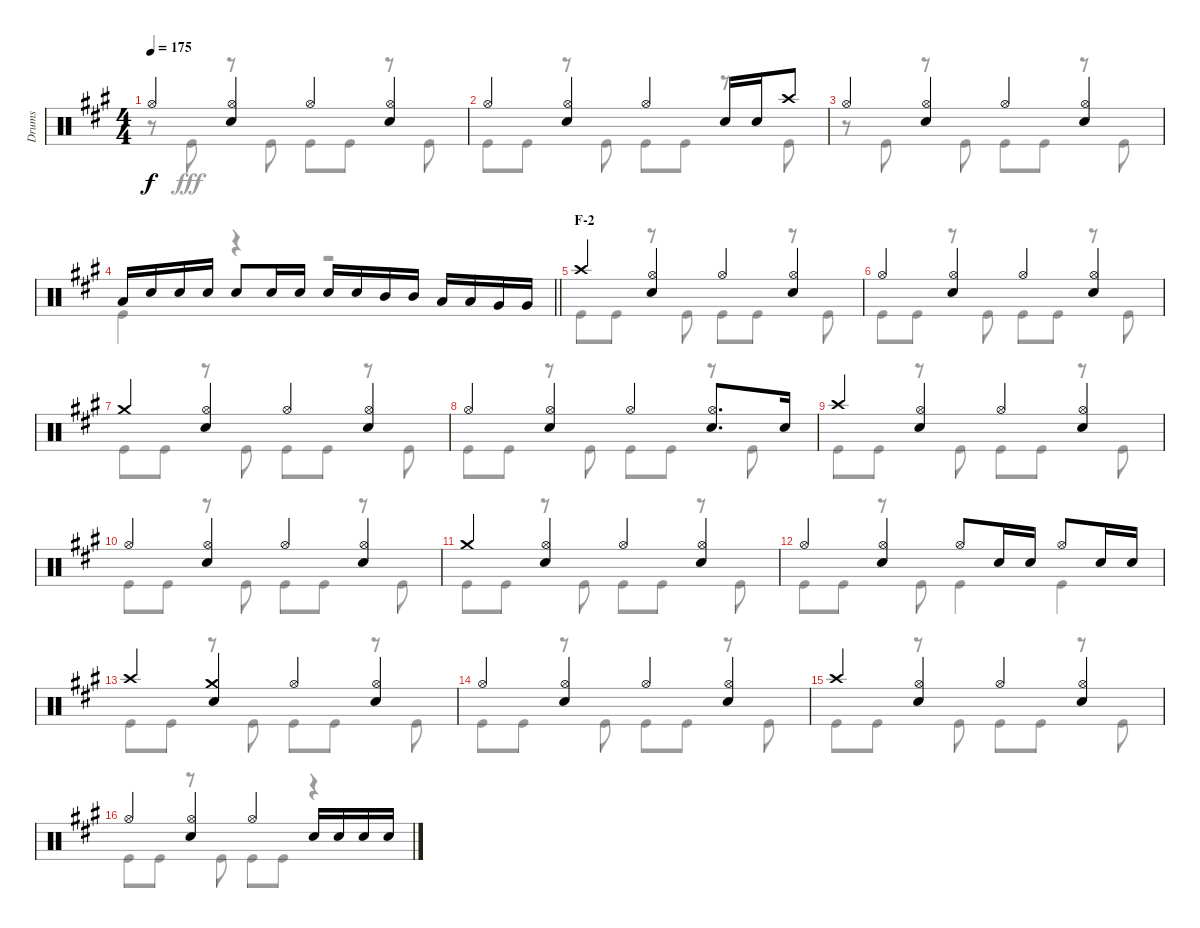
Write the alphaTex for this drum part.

\track ("Drums" "Drums") {instrument percussion}
\staff {score}
\articulation defaults
\voice
\ts (4 4)
\tempo 175
\clef neutral
\ks a "Hi-Hat (open)".4{dy f}
("Hi-Hat (open)" "Snare (hit) 2").4 "Hi-Hat (open)".4 ("Hi-Hat (open)" "Snare (hit) 2").4 |
"Hi-Hat (open)".4 ("Hi-Hat (open)" "Snare (hit) 2").4 "Hi-Hat (open)".4 "Snare (hit) 2".16 "Snare (hit) 2".16 "Crash high (hit)".8 |
"Hi-Hat (open)".4 ("Hi-Hat (open)" "Snare (hit) 2").4 "Hi-Hat (open)".4 ("Hi-Hat (open)" "Snare (hit) 2").4 |
\barLineRight lightlight "Low Tom (hit)".16 "Snare (hit) 2".16 "Snare (hit) 2".16 "Snare (hit) 2".16 "Snare (hit) 2".8 "Snare (hit) 2".16 "Snare (hit) 2".16 "Snare (hit) 2".16 "Snare (hit) 2".16 "Mid Tom (hit)".16 "Mid Tom (hit)".16 "Low Tom (hit)".16 "Low Tom (hit)".16 "Very Low Tom (hit)".16 "Very Low Tom (hit)".16
|
\section ("" "F-2")
"Crash high (hit)".4 ("Hi-Hat (open)" "Snare (hit) 2").4 "Hi-Hat (open)".4 ("Hi-Hat (open)" "Snare (hit) 2").4 |
"Hi-Hat (open)".4 ("Hi-Hat (open)" "Snare (hit) 2").4 "Hi-Hat (open)".4 ("Hi-Hat (open)" "Snare (hit) 2").4 |
"Crash medium (hit)".4 ("Hi-Hat (open)" "Snare (hit) 2").4 "Hi-Hat (open)".4 ("Hi-Hat (open)" "Snare (hit) 2").4 |
"Hi-Hat (open)".4 ("Hi-Hat (open)" "Snare (hit) 2").4 "Hi-Hat (open)".4 ("Hi-Hat (open)" "Snare (hit) 2").8{d} "Snare (hit) 2".16 |
"Crash high (hit)".4 ("Hi-Hat (open)" "Snare (hit) 2").4 "Hi-Hat (open)".4 ("Hi-Hat (open)" "Snare (hit) 2").4 |
"Hi-Hat (open)".4 ("Hi-Hat (open)" "Snare (hit) 2").4 "Hi-Hat (open)".4 ("Hi-Hat (open)" "Snare (hit) 2").4 |
"Crash medium (hit)".4 ("Hi-Hat (open)" "Snare (hit) 2").4 "Hi-Hat (open)".4 ("Hi-Hat (open)" "Snare (hit) 2").4 |
"Hi-Hat (open)".4 ("Hi-Hat (open)" "Snare (hit) 2").4 "Hi-Hat (open)".8 "Snare (hit) 2".16 "Snare (hit) 2".16 "Hi-Hat (open)".8 "Snare (hit) 2".16 "Snare (hit) 2".16 |
"Crash high (hit)".4 ("Crash medium (hit)" "Snare (hit) 2").4 "Hi-Hat (open)".4 ("Hi-Hat (open)" "Snare (hit) 2").4 |
"Hi-Hat (open)".4 ("Hi-Hat (open)" "Snare (hit) 2").4 "Hi-Hat (open)".4 ("Hi-Hat (open)" "Snare (hit) 2").4 |
"Crash high (hit)".4 ("Hi-Hat (open)" "Snare (hit) 2").4 "Hi-Hat (open)".4 ("Hi-Hat (open)" "Snare (hit) 2").4 |
"Hi-Hat (open)".4 ("Hi-Hat (open)" "Snare (hit) 2").4 "Hi-Hat (open)".4 "Snare (hit) 2".16 "Snare (hit) 2".16 "Snare (hit) 2".16 "Snare (hit) 2".16
\voice
\clef neutral
\ottava regular
\simile none
\ks a
r.8{dy fff} "Kick (hit)".8 r.8 "Kick (hit)".8 "Kick (hit)".8 "Kick (hit)".8 r.8 "Kick (hit)".8 |
"Kick (hit)".8 "Kick (hit)".8 r.8 "Kick (hit)".8 "Kick (hit)".8 "Kick (hit)".8 r.8 "Kick (hit)".8 |
r.8 "Kick (hit)".8 r.8 "Kick (hit)".8 "Kick (hit)".8 "Kick (hit)".8 r.8 "Kick (hit)".8 |
\barLineRight lightlight "Kick (hit)".4
r.4 r.2 |
"Kick (hit)".8 "Kick (hit)".8 r.8 "Kick (hit)".8 "Kick (hit)".8 "Kick (hit)".8 r.8 "Kick (hit)".8 |
"Kick (hit)".8 "Kick (hit)".8 r.8 "Kick (hit)".8 "Kick (hit)".8 "Kick (hit)".8 r.8 "Kick (hit)".8 |
"Kick (hit)".8 "Kick (hit)".8 r.8 "Kick (hit)".8 "Kick (hit)".8 "Kick (hit)".8 r.8 "Kick (hit)".8 |
"Kick (hit)".8 "Kick (hit)".8 r.8 "Kick (hit)".8 "Kick (hit)".8 "Kick (hit)".8 r.8 "Kick (hit)".8 |
"Kick (hit)".8 "Kick (hit)".8 r.8 "Kick (hit)".8 "Kick (hit)".8 "Kick (hit)".8 r.8 "Kick (hit)".8 |
"Kick (hit)".8 "Kick (hit)".8 r.8 "Kick (hit)".8 "Kick (hit)".8 "Kick (hit)".8 r.8 "Kick (hit)".8 |
"Kick (hit)".8 "Kick (hit)".8 r.8 "Kick (hit)".8 "Kick (hit)".8 "Kick (hit)".8 r.8 "Kick (hit)".8 |
"Kick (hit)".8 "Kick (hit)".8 r.8 "Kick (hit)".8 "Kick (hit)".4 "Kick (hit)".4 |
"Kick (hit)".8 "Kick (hit)".8 r.8 "Kick (hit)".8 "Kick (hit)".8 "Kick (hit)".8 r.8 "Kick (hit)".8 |
"Kick (hit)".8 "Kick (hit)".8 r.8 "Kick (hit)".8 "Kick (hit)".8 "Kick (hit)".8 r.8 "Kick (hit)".8 |
"Kick (hit)".8 "Kick (hit)".8 r.8 "Kick (hit)".8 "Kick (hit)".8 "Kick (hit)".8 r.8 "Kick (hit)".8 |
"Kick (hit)".8 "Kick (hit)".8 r.8 "Kick (hit)".8 "Kick (hit)".8 "Kick (hit)".8 r.4
